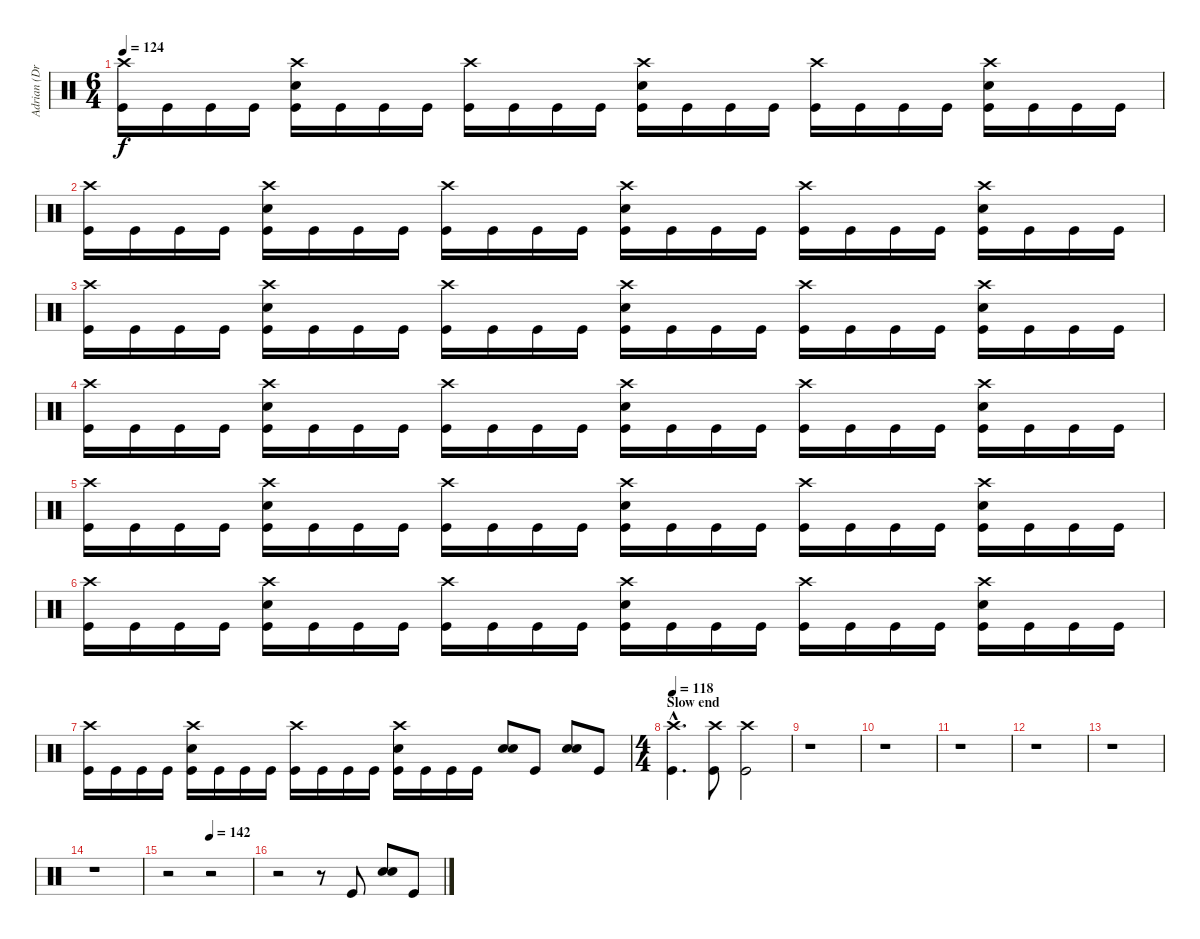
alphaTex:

\track ("Adrian (Drums)" "Adrian (Dr") {instrument percussion}
\staff {score}
\articulation defaults
\ts (6 4)
\tempo 124
\clef neutral
\ks c
("Crash high (hit)" "Kick (hit)").16{dy f} "Kick (hit)".16 "Kick (hit)".16 "Kick (hit)".16 ("Crash high (hit)" "Electric Snare (hit)" "Kick (hit)").16 "Kick (hit)".16 "Kick (hit)".16 "Kick (hit)".16 ("Crash high (hit)" "Kick (hit)").16 "Kick (hit)".16 "Kick (hit)".16 "Kick (hit)".16 ("Crash high (hit)" "Electric Snare (hit)" "Kick (hit)").16 "Kick (hit)".16 "Kick (hit)".16 "Kick (hit)".16 ("Crash high (hit)" "Kick (hit)").16 "Kick (hit)".16 "Kick (hit)".16 "Kick (hit)".16 ("Crash high (hit)" "Electric Snare (hit)" "Kick (hit)").16 "Kick (hit)".16 "Kick (hit)".16 "Kick (hit)".16 |
("Crash high (hit)" "Kick (hit)").16 "Kick (hit)".16 "Kick (hit)".16 "Kick (hit)".16 ("Crash high (hit)" "Electric Snare (hit)" "Kick (hit)").16 "Kick (hit)".16 "Kick (hit)".16 "Kick (hit)".16 ("Crash high (hit)" "Kick (hit)").16 "Kick (hit)".16 "Kick (hit)".16 "Kick (hit)".16 ("Crash high (hit)" "Electric Snare (hit)" "Kick (hit)").16 "Kick (hit)".16 "Kick (hit)".16 "Kick (hit)".16 ("Crash high (hit)" "Kick (hit)").16 "Kick (hit)".16 "Kick (hit)".16 "Kick (hit)".16 ("Crash high (hit)" "Electric Snare (hit)" "Kick (hit)").16 "Kick (hit)".16 "Kick (hit)".16 "Kick (hit)".16 |
("Crash high (hit)" "Kick (hit)").16 "Kick (hit)".16 "Kick (hit)".16 "Kick (hit)".16 ("Crash high (hit)" "Electric Snare (hit)" "Kick (hit)").16 "Kick (hit)".16 "Kick (hit)".16 "Kick (hit)".16 ("Crash high (hit)" "Kick (hit)").16 "Kick (hit)".16 "Kick (hit)".16 "Kick (hit)".16 ("Crash high (hit)" "Electric Snare (hit)" "Kick (hit)").16 "Kick (hit)".16 "Kick (hit)".16 "Kick (hit)".16 ("Crash high (hit)" "Kick (hit)").16 "Kick (hit)".16 "Kick (hit)".16 "Kick (hit)".16 ("Crash high (hit)" "Electric Snare (hit)" "Kick (hit)").16 "Kick (hit)".16 "Kick (hit)".16 "Kick (hit)".16 |
("Crash high (hit)" "Kick (hit)").16 "Kick (hit)".16 "Kick (hit)".16 "Kick (hit)".16 ("Crash high (hit)" "Electric Snare (hit)" "Kick (hit)").16 "Kick (hit)".16 "Kick (hit)".16 "Kick (hit)".16 ("Crash high (hit)" "Kick (hit)").16 "Kick (hit)".16 "Kick (hit)".16 "Kick (hit)".16 ("Crash high (hit)" "Electric Snare (hit)" "Kick (hit)").16 "Kick (hit)".16 "Kick (hit)".16 "Kick (hit)".16 ("Crash high (hit)" "Kick (hit)").16 "Kick (hit)".16 "Kick (hit)".16 "Kick (hit)".16 ("Crash high (hit)" "Electric Snare (hit)" "Kick (hit)").16 "Kick (hit)".16 "Kick (hit)".16 "Kick (hit)".16 |
("Crash high (hit)" "Kick (hit)").16 "Kick (hit)".16 "Kick (hit)".16 "Kick (hit)".16 ("Crash high (hit)" "Electric Snare (hit)" "Kick (hit)").16 "Kick (hit)".16 "Kick (hit)".16 "Kick (hit)".16 ("Crash high (hit)" "Kick (hit)").16 "Kick (hit)".16 "Kick (hit)".16 "Kick (hit)".16 ("Crash high (hit)" "Electric Snare (hit)" "Kick (hit)").16 "Kick (hit)".16 "Kick (hit)".16 "Kick (hit)".16 ("Crash high (hit)" "Kick (hit)").16 "Kick (hit)".16 "Kick (hit)".16 "Kick (hit)".16 ("Crash high (hit)" "Electric Snare (hit)" "Kick (hit)").16 "Kick (hit)".16 "Kick (hit)".16 "Kick (hit)".16 |
("Crash high (hit)" "Kick (hit)").16 "Kick (hit)".16 "Kick (hit)".16 "Kick (hit)".16 ("Crash high (hit)" "Electric Snare (hit)" "Kick (hit)").16 "Kick (hit)".16 "Kick (hit)".16 "Kick (hit)".16 ("Crash high (hit)" "Kick (hit)").16 "Kick (hit)".16 "Kick (hit)".16 "Kick (hit)".16 ("Crash high (hit)" "Electric Snare (hit)" "Kick (hit)").16 "Kick (hit)".16 "Kick (hit)".16 "Kick (hit)".16 ("Crash high (hit)" "Kick (hit)").16 "Kick (hit)".16 "Kick (hit)".16 "Kick (hit)".16 ("Crash high (hit)" "Electric Snare (hit)" "Kick (hit)").16 "Kick (hit)".16 "Kick (hit)".16 "Kick (hit)".16 |
("Crash high (hit)" "Kick (hit)").16 "Kick (hit)".16 "Kick (hit)".16 "Kick (hit)".16 ("Crash high (hit)" "Electric Snare (hit)" "Kick (hit)").16 "Kick (hit)".16 "Kick (hit)".16 "Kick (hit)".16 ("Crash high (hit)" "Kick (hit)").16 "Kick (hit)".16 "Kick (hit)".16 "Kick (hit)".16 ("Crash high (hit)" "Electric Snare (hit)" "Kick (hit)").16 "Kick (hit)".16 "Kick (hit)".16 "Kick (hit)".16 ("Electric Snare (hit)" "Electric Snare (hit)").8{bu 120} "Kick (hit)".8 ("Electric Snare (hit)" "Electric Snare (hit)").8{bu 120} "Kick (hit)".8 |
\ts (4 4)
\section ("" "Slow end")
\tempo 118
("Crash high (hit)"{hac} "Kick (hit)"{hac}).4{d} ("Crash high (hit)" "Kick (hit)").8 ("Crash high (hit)" "Kick (hit)").2 |
r.1 |
r.1 |
r.1 |
r.1 |
r.1 |
r.1 |
\tempo (142 0.5)
r.2 r.2 |
r.2 r.8 "Kick (hit)".8 ("Electric Snare (hit)" "Electric Snare (hit)").8{bu 120} "Kick (hit)".8
